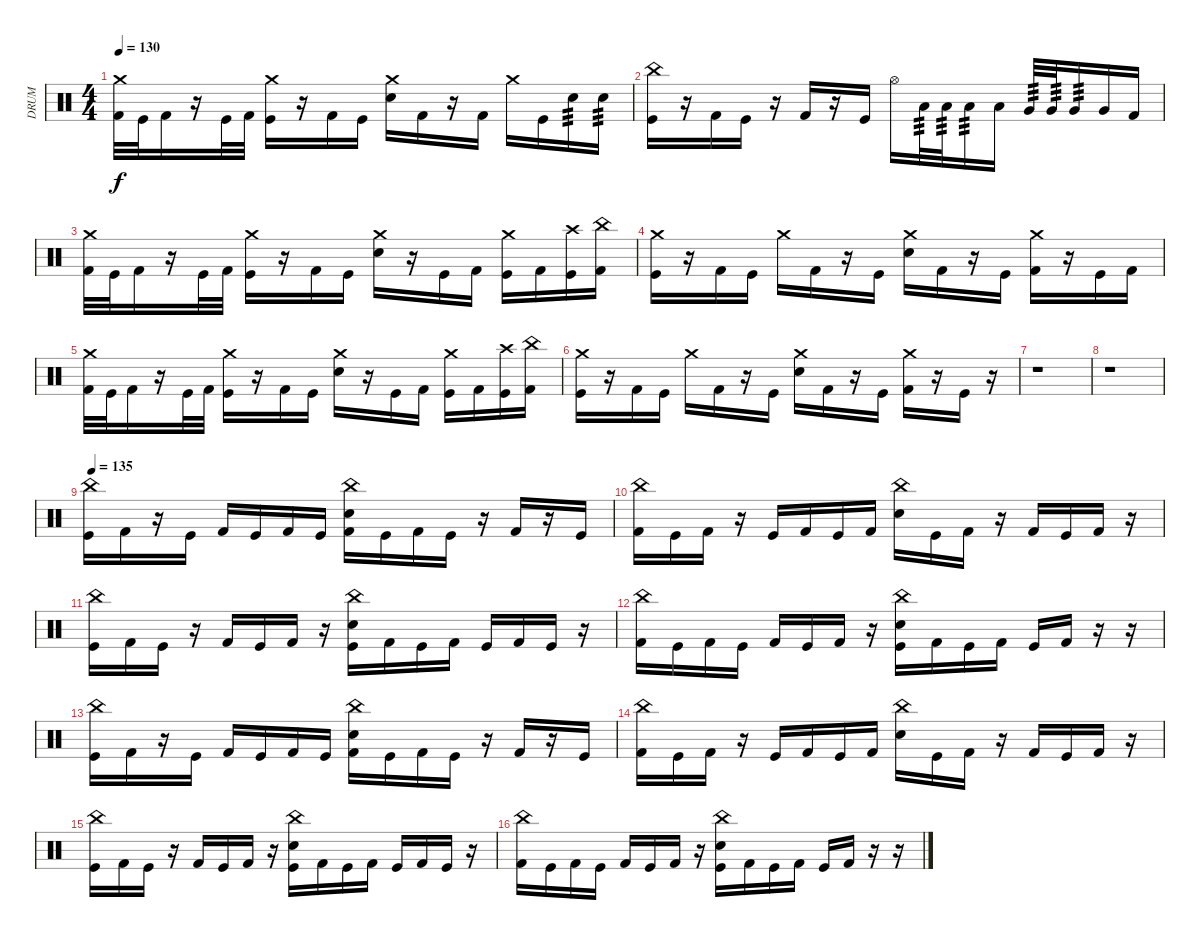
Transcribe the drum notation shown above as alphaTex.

\track ("DRUM" "DRUM") {instrument percussion}
\staff {score}
\articulation defaults
\ts (4 4)
\tempo 130
\clef neutral
\ks c
("Crash medium (hit)" "Kick (hit) 2").32{dy f} "Kick (hit)".32 "Kick (hit) 2".16 r.16 "Kick (hit)".32 "Kick (hit) 2".32 ("Crash medium (hit)" "Kick (hit)").16 r.16 "Kick (hit) 2".16 "Kick (hit)".16 ("Crash medium (hit)" "Electric Snare (hit)").16 "Kick (hit) 2".16 r.16 "Kick (hit) 2".16 "Crash medium (hit)".16 "Kick (hit)".16 "Electric Snare (hit)".16{tp 3} "Electric Snare (hit)".16{tp 3} |
("China (hit)" "Kick (hit)").16 r.16 "Kick (hit) 2".16 "Kick (hit)".16 r.16 "Kick (hit) 2".16 r.16 "Kick (hit)".16 "Hi-Hat (open)".16 "Low Tom (hit)".32{tp 3} "Low Tom (hit)".32{tp 3} "Low Tom (hit)".16{tp 3} "Low Tom (hit)".16 "Very Low Tom (hit)".32{tp 3} "Very Low Tom (hit)".32{tp 3} "Very Low Tom (hit)".16{tp 3} "Very Low Tom (hit)".16 "Kick (hit) 2".16 |
("Crash medium (hit)" "Kick (hit) 2").32 "Kick (hit)".32 "Kick (hit) 2".16 r.16 "Kick (hit)".32 "Kick (hit) 2".32 ("Crash medium (hit)" "Kick (hit)").16 r.16 "Kick (hit) 2".16 "Kick (hit)".16 ("Crash medium (hit)" "Electric Snare (hit)").16 r.16 "Kick (hit)".16 "Kick (hit) 2".16 ("Crash medium (hit)" "Kick (hit)").16 "Kick (hit) 2".16 ("Crash high (hit)" "Kick (hit)").16 ("China (hit)" "Kick (hit) 2").16 |
("Crash medium (hit)" "Kick (hit)").16 r.16 "Kick (hit) 2".16 "Kick (hit)".16 "Crash medium (hit)".16 "Kick (hit) 2".16 r.16 "Kick (hit)".16 ("Crash medium (hit)" "Electric Snare (hit)").16 "Kick (hit) 2".16 r.16 "Kick (hit)".16 ("Crash medium (hit)" "Kick (hit) 2").16 r.16 "Kick (hit)".16 "Kick (hit) 2".16 |
("Crash medium (hit)" "Kick (hit) 2").32 "Kick (hit)".32 "Kick (hit) 2".16 r.16 "Kick (hit)".32 "Kick (hit) 2".32 ("Crash medium (hit)" "Kick (hit)").16 r.16 "Kick (hit) 2".16 "Kick (hit)".16 ("Crash medium (hit)" "Electric Snare (hit)").16 r.16 "Kick (hit)".16 "Kick (hit) 2".16 ("Crash medium (hit)" "Kick (hit)").16 "Kick (hit) 2".16 ("Crash high (hit)" "Kick (hit)").16 ("China (hit)" "Kick (hit) 2").16 |
("Crash medium (hit)" "Kick (hit)").16 r.16 "Kick (hit) 2".16 "Kick (hit)".16 "Crash medium (hit)".16 "Kick (hit) 2".16 r.16 "Kick (hit)".16 ("Crash medium (hit)" "Electric Snare (hit)").16 "Kick (hit) 2".16 r.16 "Kick (hit)".16 ("Crash medium (hit)" "Kick (hit) 2").16 r.16 "Kick (hit)".16 r.16 |
r.1 |
r.1 |
\tempo 135
("China (hit)" "Kick (hit)").16 "Kick (hit) 2".16 r.16 "Kick (hit)".16 "Kick (hit) 2".16 "Kick (hit)".16 "Kick (hit) 2".16 "Kick (hit)".16 ("China (hit)" "Electric Snare (hit)" "Kick (hit) 2").16 "Kick (hit)".16 "Kick (hit) 2".16 "Kick (hit)".16 r.16 "Kick (hit) 2".16 r.16 "Kick (hit)".16 |
("China (hit)" "Kick (hit) 2").16 "Kick (hit)".16 "Kick (hit) 2".16 r.16 "Kick (hit)".16 "Kick (hit) 2".16 "Kick (hit)".16 "Kick (hit) 2".16 ("China (hit)" "Electric Snare (hit)").16 "Kick (hit)".16 "Kick (hit) 2".16 r.16 "Kick (hit) 2".16 "Kick (hit)".16 "Kick (hit) 2".16 r.16 |
("China (hit)" "Kick (hit)").16 "Kick (hit) 2".16 "Kick (hit)".16 r.16 "Kick (hit) 2".16 "Kick (hit)".16 "Kick (hit) 2".16 r.16 ("China (hit)" "Electric Snare (hit)" "Kick (hit)").16 "Kick (hit) 2".16 "Kick (hit)".16 "Kick (hit) 2".16 "Kick (hit)".16 "Kick (hit) 2".16 "Kick (hit)".16 r.16 |
("China (hit)" "Kick (hit) 2").16 "Kick (hit)".16 "Kick (hit) 2".16 "Kick (hit)".16 "Kick (hit) 2".16 "Kick (hit)".16 "Kick (hit) 2".16 r.16 ("China (hit)" "Electric Snare (hit)" "Kick (hit)").16 "Kick (hit) 2".16 "Kick (hit)".16 "Kick (hit) 2".16 "Kick (hit)".16 "Kick (hit) 2".16 r.16 r.16 |
("China (hit)" "Kick (hit)").16 "Kick (hit) 2".16 r.16 "Kick (hit)".16 "Kick (hit) 2".16 "Kick (hit)".16 "Kick (hit) 2".16 "Kick (hit)".16 ("China (hit)" "Electric Snare (hit)" "Kick (hit) 2").16 "Kick (hit)".16 "Kick (hit) 2".16 "Kick (hit)".16 r.16 "Kick (hit) 2".16 r.16 "Kick (hit)".16 |
("China (hit)" "Kick (hit) 2").16 "Kick (hit)".16 "Kick (hit) 2".16 r.16 "Kick (hit)".16 "Kick (hit) 2".16 "Kick (hit)".16 "Kick (hit) 2".16 ("China (hit)" "Electric Snare (hit)").16 "Kick (hit)".16 "Kick (hit) 2".16 r.16 "Kick (hit) 2".16 "Kick (hit)".16 "Kick (hit) 2".16 r.16 |
("China (hit)" "Kick (hit)").16 "Kick (hit) 2".16 "Kick (hit)".16 r.16 "Kick (hit) 2".16 "Kick (hit)".16 "Kick (hit) 2".16 r.16 ("China (hit)" "Electric Snare (hit)" "Kick (hit)").16 "Kick (hit) 2".16 "Kick (hit)".16 "Kick (hit) 2".16 "Kick (hit)".16 "Kick (hit) 2".16 "Kick (hit)".16 r.16 |
("China (hit)" "Kick (hit) 2").16 "Kick (hit)".16 "Kick (hit) 2".16 "Kick (hit)".16 "Kick (hit) 2".16 "Kick (hit)".16 "Kick (hit) 2".16 r.16 ("China (hit)" "Electric Snare (hit)" "Kick (hit)").16 "Kick (hit) 2".16 "Kick (hit)".16 "Kick (hit) 2".16 "Kick (hit)".16 "Kick (hit) 2".16 r.16 r.16
